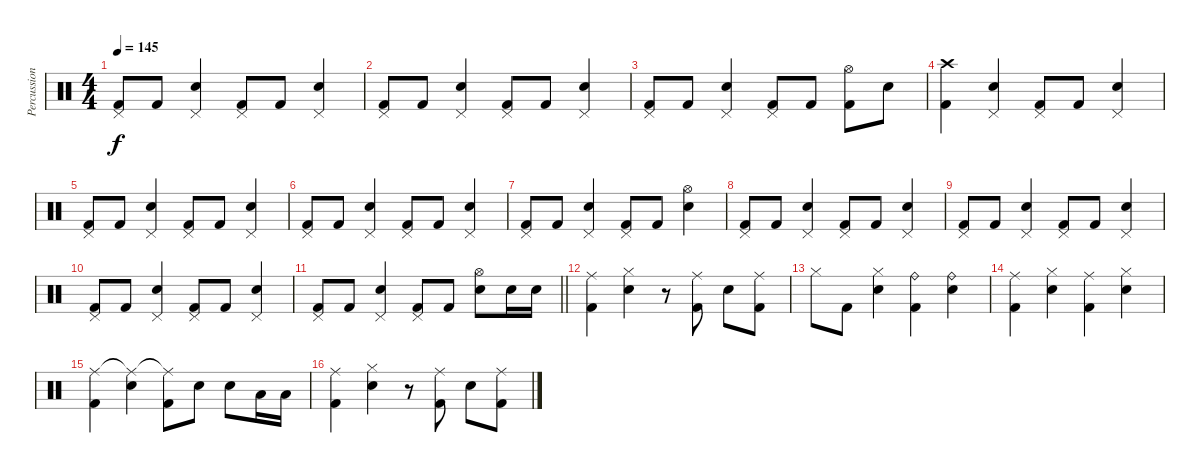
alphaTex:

\track ("Percussion" "Percussion") {instrument percussion}
\staff {score}
\articulation defaults
\ts (4 4)
\tempo 145
\clef neutral
\ks c
("Pedal Hi-Hat (hit)" "Kick (hit) 2").8{dy f} "Kick (hit) 2".8 ("Pedal Hi-Hat (hit)" "Snare (hit) 2").4 ("Pedal Hi-Hat (hit)" "Kick (hit) 2").8 "Kick (hit) 2".8 ("Pedal Hi-Hat (hit)" "Snare (hit) 2").4 |
("Pedal Hi-Hat (hit)" "Kick (hit) 2").8 "Kick (hit) 2".8 ("Pedal Hi-Hat (hit)" "Snare (hit) 2").4 ("Pedal Hi-Hat (hit)" "Kick (hit) 2").8 "Kick (hit) 2".8 ("Pedal Hi-Hat (hit)" "Snare (hit) 2").4 |
("Pedal Hi-Hat (hit)" "Kick (hit) 2").8 "Kick (hit) 2".8 ("Pedal Hi-Hat (hit)" "Snare (hit) 2").4 ("Pedal Hi-Hat (hit)" "Kick (hit) 2").8 "Kick (hit) 2".8 ("Hi-Hat (open)" "Kick (hit) 2").8 "Snare (hit) 2".8 |
("Crash high (hit)" "Kick (hit) 2").4 ("Pedal Hi-Hat (hit)" "Snare (hit) 2").4 ("Pedal Hi-Hat (hit)" "Kick (hit) 2").8 "Kick (hit) 2".8 ("Pedal Hi-Hat (hit)" "Snare (hit) 2").4 |
("Pedal Hi-Hat (hit)" "Kick (hit) 2").8 "Kick (hit) 2".8 ("Pedal Hi-Hat (hit)" "Snare (hit) 2").4 ("Pedal Hi-Hat (hit)" "Kick (hit) 2").8 "Kick (hit) 2".8 ("Pedal Hi-Hat (hit)" "Snare (hit) 2").4 |
("Pedal Hi-Hat (hit)" "Kick (hit) 2").8 "Kick (hit) 2".8 ("Pedal Hi-Hat (hit)" "Snare (hit) 2").4 ("Pedal Hi-Hat (hit)" "Kick (hit) 2").8 "Kick (hit) 2".8 ("Pedal Hi-Hat (hit)" "Snare (hit) 2").4 |
("Pedal Hi-Hat (hit)" "Kick (hit) 2").8 "Kick (hit) 2".8 ("Pedal Hi-Hat (hit)" "Snare (hit) 2").4 ("Pedal Hi-Hat (hit)" "Kick (hit) 2").8 "Kick (hit) 2".8 ("Hi-Hat (open)" "Snare (hit) 2").4 |
("Pedal Hi-Hat (hit)" "Kick (hit) 2").8 "Kick (hit) 2".8 ("Pedal Hi-Hat (hit)" "Snare (hit) 2").4 ("Pedal Hi-Hat (hit)" "Kick (hit) 2").8 "Kick (hit) 2".8 ("Pedal Hi-Hat (hit)" "Snare (hit) 2").4 |
("Pedal Hi-Hat (hit)" "Kick (hit) 2").8 "Kick (hit) 2".8 ("Pedal Hi-Hat (hit)" "Snare (hit) 2").4 ("Pedal Hi-Hat (hit)" "Kick (hit) 2").8 "Kick (hit) 2".8 ("Pedal Hi-Hat (hit)" "Snare (hit) 2").4 |
("Pedal Hi-Hat (hit)" "Kick (hit) 2").8 "Kick (hit) 2".8 ("Pedal Hi-Hat (hit)" "Snare (hit) 2").4 ("Pedal Hi-Hat (hit)" "Kick (hit) 2").8 "Kick (hit) 2".8 ("Pedal Hi-Hat (hit)" "Snare (hit) 2").4 |
\barLineRight lightlight
("Pedal Hi-Hat (hit)" "Kick (hit) 2").8 "Kick (hit) 2".8 ("Pedal Hi-Hat (hit)" "Snare (hit) 2").4 ("Pedal Hi-Hat (hit)" "Kick (hit) 2").8 "Kick (hit) 2".8 ("Hi-Hat (open)" "Snare (hit) 2").8 "Snare (hit) 2".16 "Snare (hit) 2".16 |
\section ("" "")
("Ride (middle)" "Kick (hit) 2").4 ("Hi-Hat (closed)" "Snare (hit) 2").4 r.8 ("Ride (middle)" "Kick (hit) 2").8 "Snare (hit) 2".8 ("Ride (middle)" "Kick (hit) 2").8 |
"Hi-Hat (closed)".8 "Kick (hit) 2".8 ("Hi-Hat (closed)" "Snare (hit) 2").4 ("Ride (bell)" "Kick (hit) 2").4 ("Ride (bell)" "Snare (hit) 2").4 |
("Ride (middle)" "Kick (hit) 2").4 ("Hi-Hat (closed)" "Snare (hit) 2").4 ("Ride (middle)" "Kick (hit) 2").4 ("Hi-Hat (closed)" "Snare (hit) 2").4 |
("Ride (middle)" "Kick (hit) 2").4 ("Ride (middle)"{t} "Snare (hit) 2").4 ("Ride (middle)"{t} "Kick (hit) 2").8 "Snare (hit) 2".8 "Snare (hit) 2".8 "Low Tom (hit)".16 "Low Tom (hit)".16 |
("Ride (middle)" "Kick (hit) 2").4 ("Hi-Hat (closed)" "Snare (hit) 2").4 r.8 ("Ride (middle)" "Kick (hit) 2").8 "Snare (hit) 2".8 ("Ride (middle)" "Kick (hit) 2").8
